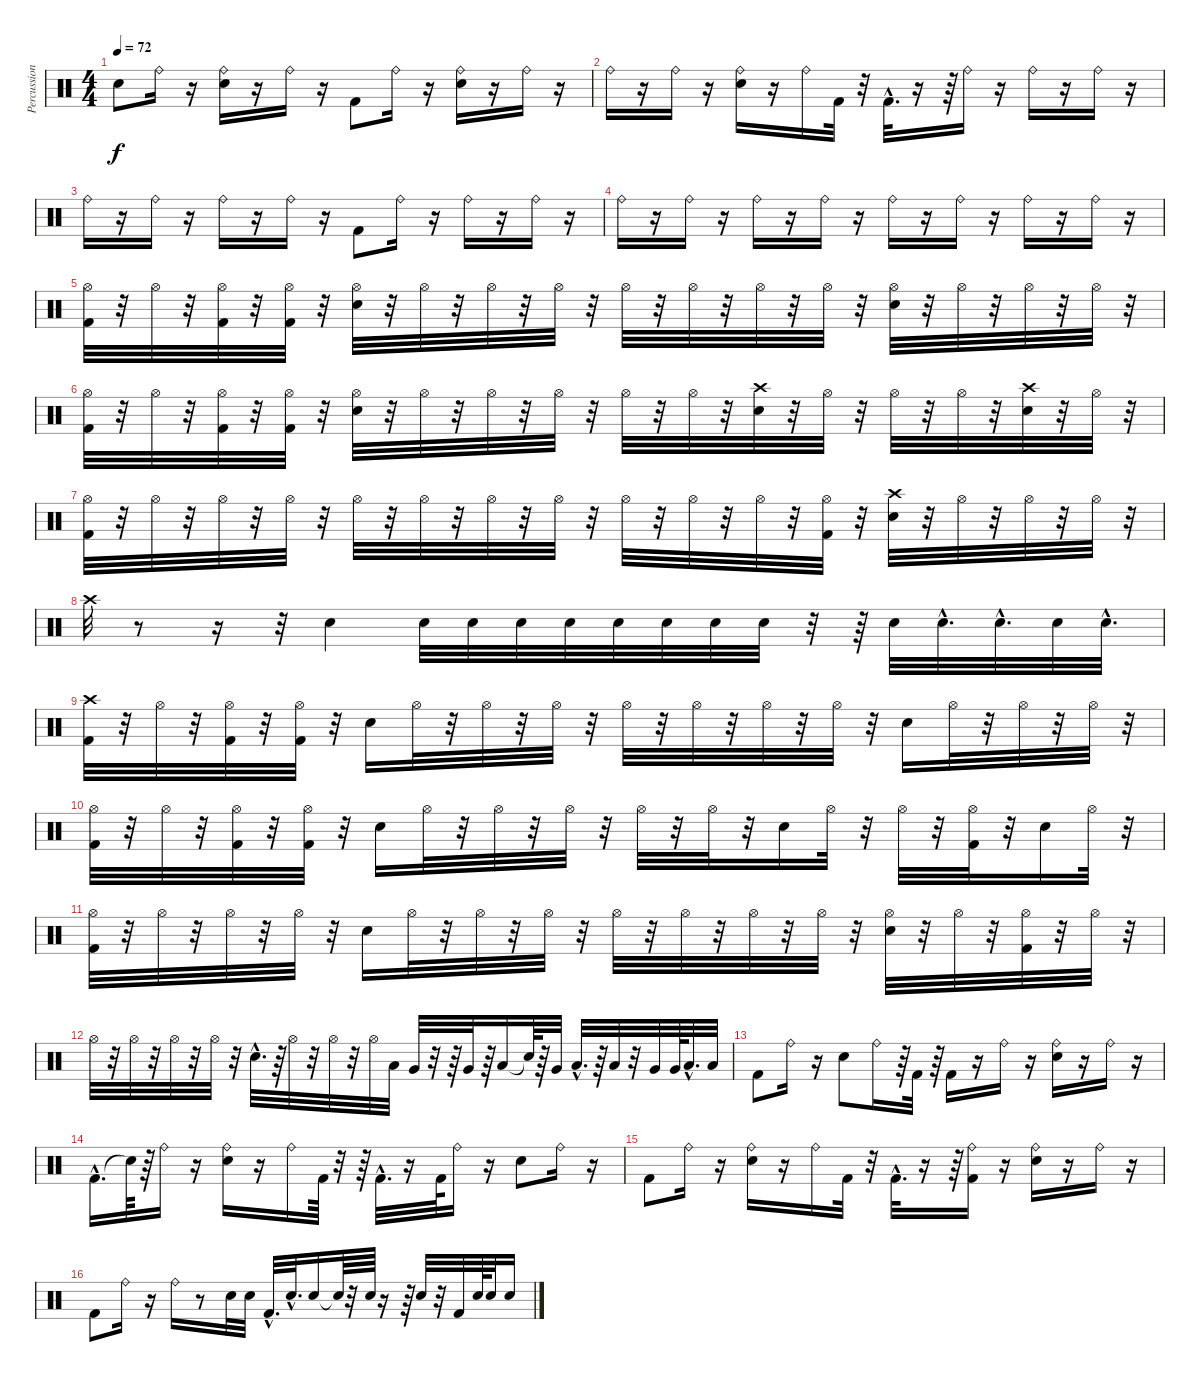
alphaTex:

\track ("Percussions" "Percussion") {instrument percussion}
\staff {score}
\articulation defaults
\ts (4 4)
\tempo 72
\clef neutral
\ks c "Snare (hit)"{t}.8{dy f} "Ride (bell)".16
r.16 ("Snare (hit) 2" "Ride (bell)").16 r.16 "Ride (bell)".16 r.16 "Kick (hit) 2".8 "Ride (bell)".16 r.16 ("Snare (hit) 2" "Ride (bell)").16 r.16 "Ride (bell)".16 r.16 |
"Ride (bell)".16 r.16 "Ride (bell)".16 r.16 ("Snare (hit) 2" "Ride (bell)").16 r.16 "Ride (bell)".16 "Kick (hit) 2".32 r.32 "Kick (hit) 2"{hac}.32{d} r.16 r.64 "Ride (bell)".16 r.16 "Ride (bell)".16 r.16 "Ride (bell)".16 r.16 |
"Ride (bell)".16 r.16 "Ride (bell)".16 r.16 "Ride (bell)".16 r.16 "Ride (bell)".16 r.16 "Kick (hit) 2".8 "Ride (bell)".16 r.16 "Ride (bell)".16 r.16 "Ride (bell)".16 r.16 |
"Ride (bell)".16 r.16 "Ride (bell)".16 r.16 "Ride (bell)".16 r.16 "Ride (bell)".16 r.16 "Ride (bell)".16 r.16 "Ride (bell)".16 r.16 "Ride (bell)".16 r.16 "Ride (bell)".16 r.16 |
("Hi-Hat (open)" "Kick (hit) 2").32 r.32 "Hi-Hat (open)".32 r.32 ("Hi-Hat (open)" "Kick (hit) 2").32 r.32 ("Hi-Hat (open)" "Kick (hit) 2").32 r.32 ("Snare (hit) 2" "Hi-Hat (open)").32 r.32 "Hi-Hat (open)".32 r.32 "Hi-Hat (open)".32 r.32 "Hi-Hat (open)".32 r.32 "Hi-Hat (open)".32 r.32 "Hi-Hat (open)".32 r.32 "Hi-Hat (open)".32 r.32 "Hi-Hat (open)".32 r.32 ("Snare (hit) 2" "Hi-Hat (open)").32 r.32 "Hi-Hat (open)".32 r.32 "Hi-Hat (open)".32 r.32 "Hi-Hat (open)".32 r.32 |
("Hi-Hat (open)" "Kick (hit) 2").32 r.32 "Hi-Hat (open)".32 r.32 ("Hi-Hat (open)" "Kick (hit) 2").32 r.32 ("Hi-Hat (open)" "Kick (hit) 2").32 r.32 ("Snare (hit) 2" "Hi-Hat (open)").32 r.32 "Hi-Hat (open)".32 r.32 "Hi-Hat (open)".32 r.32 "Hi-Hat (open)".32 r.32 "Hi-Hat (open)".32 r.32 "Hi-Hat (open)".32 r.32 ("Snare (hit) 2" "Crash high (hit)").32 r.32 "Hi-Hat (open)".32 r.32 "Hi-Hat (open)".32 r.32 "Hi-Hat (open)".32 r.32 ("Snare (hit) 2" "Crash high (hit)").32 r.32 "Hi-Hat (open)".32 r.32 |
("Hi-Hat (open)" "Kick (hit) 2").32 r.32 "Hi-Hat (open)".32 r.32 "Hi-Hat (open)".32 r.32 "Hi-Hat (open)".32 r.32 "Hi-Hat (open)".32 r.32 "Hi-Hat (open)".32 r.32 "Hi-Hat (open)".32 r.32 "Hi-Hat (open)".32 r.32 "Hi-Hat (open)".32 r.32 "Hi-Hat (open)".32 r.32 "Hi-Hat (open)".32 r.32 ("Hi-Hat (open)" "Kick (hit) 2").32 r.32 ("Snare (hit) 2" "Crash high (hit)").32 r.32 "Hi-Hat (open)".32 r.32 "Hi-Hat (open)".32 r.32 "Hi-Hat (open)".32 r.32 |
"Crash high (hit)".32 r.8 r.16 r.32 "Snare (hit) 2".4 "Snare (hit) 2".32 "Snare (hit) 2".32 "Snare (hit) 2".32 "Snare (hit) 2".32 "Snare (hit) 2".32 "Snare (hit) 2".32 "Snare (hit) 2".32 "Snare (hit) 2".32 r.32 r.64 "Snare (hit) 2".32 "Snare (hit) 2"{hac}.32{d} "Snare (hit) 2"{hac}.32{d} "Snare (hit) 2".32 "Snare (hit) 2"{hac}.32{d} |
("Crash high (hit)" "Kick (hit) 2").32 r.32 "Hi-Hat (open)".32 r.32 ("Hi-Hat (open)" "Kick (hit) 2").32 r.32 ("Hi-Hat (open)" "Kick (hit) 2").32 r.32 "Snare (hit) 2".16 "Hi-Hat (open)".32 r.32 "Hi-Hat (open)".32 r.32 "Hi-Hat (open)".32 r.32 "Hi-Hat (open)".32 r.32 "Hi-Hat (open)".32 r.32 "Hi-Hat (open)".32 r.32 "Hi-Hat (open)".32 r.32 "Snare (hit) 2".16 "Hi-Hat (open)".32 r.32 "Hi-Hat (open)".32 r.32 "Hi-Hat (open)".32 r.32 |
("Hi-Hat (open)" "Kick (hit) 2").32 r.32 "Hi-Hat (open)".32 r.32 ("Hi-Hat (open)" "Kick (hit) 2").32 r.32 ("Hi-Hat (open)" "Kick (hit) 2").32 r.32 "Snare (hit) 2".16 "Hi-Hat (open)".32 r.32 "Hi-Hat (open)".32 r.32 "Hi-Hat (open)".32 r.32 "Hi-Hat (open)".32 r.32 "Hi-Hat (open)".32 r.32 "Snare (hit) 2".16 "Hi-Hat (open)".32 r.32 "Hi-Hat (open)".32 r.32 ("Hi-Hat (open)" "Kick (hit) 2").32 r.32 "Snare (hit) 2".16 "Hi-Hat (open)".32 r.32 |
("Hi-Hat (open)" "Kick (hit) 2").32 r.32 "Hi-Hat (open)".32 r.32 "Hi-Hat (open)".32 r.32 "Hi-Hat (open)".32 r.32 "Snare (hit) 2".16 "Hi-Hat (open)".32 r.32 "Hi-Hat (open)".32 r.32 "Hi-Hat (open)".32 r.32 "Hi-Hat (open)".32 r.32 "Hi-Hat (open)".32 r.32 "Hi-Hat (open)".32 r.32 "Hi-Hat (open)".32 r.32 ("Snare (hit) 2" "Hi-Hat (open)").32 r.32 "Hi-Hat (open)".32 r.32 ("Hi-Hat (open)" "Kick (hit) 2").32 r.32 "Hi-Hat (open)".32 r.32 |
"Hi-Hat (open)".32 r.32 "Hi-Hat (open)".32 r.32 "Hi-Hat (open)".32 r.32 "Hi-Hat (open)".32 r.32 "Snare (hit) 2"{hac}.32{d} r.64 "Hi-Hat (open)".32 r.32 "Hi-Hat (open)".32 r.32 "Hi-Hat (open)".32 "Low Floor Tom (hit)".32 "Very Low Tom (hit)".32 r.32 r.64 "Very Low Tom (hit)".32 r.64 "Low Floor Tom (hit)".16 "Snare (hit)"{t}.64 r.64 "Very Low Tom (hit)".32 "Low Tom (hit)"{hac}.32{d} r.64 "Low Tom (hit)".32 r.32 "Very Low Tom (hit)".32 "Very Low Tom (hit)".64 "Low Floor Tom (hit)"{hac}.32{d} "Low Floor Tom (hit)".32 |
"Kick (hit) 2".8 "Ride (bell)".16 r.16 "Snare (hit) 2".8 "Ride (bell)".16 r.64 "Kick (hit) 2".32 r.64 "Kick (hit) 2".16 r.16 "Ride (bell)".16 r.16 ("Snare (hit) 2" "Ride (bell)").16 r.16 "Ride (bell)".16 r.16 |
"Kick (hit) 2"{hac}.16{d} "Snare (hit)"{t}.64 r.64 "Ride (bell)".16 r.16 ("Snare (hit) 2" "Ride (bell)").16 r.16 "Ride (bell)".16 "Kick (hit) 2".64 r.32 r.64 "Kick (hit) 2"{hac}.32{d} r.16 "Kick (hit) 2".64 "Ride (bell)".16 r.16 "Snare (hit) 2".8 "Ride (bell)".16 r.16 |
"Kick (hit) 2".8 "Ride (bell)".16 r.16 ("Snare (hit) 2" "Ride (bell)").16 r.16 "Ride (bell)".16 "Kick (hit) 2".32 r.32 "Kick (hit) 2"{hac}.32{d} r.16 r.64 ("Ride (bell)" "Kick (hit) 2").16 r.16 ("Snare (hit) 2" "Ride (bell)").16 r.16 "Ride (bell)".16 r.16 |
"Kick (hit) 2".8 "Ride (bell)".16 r.16 "Ride (bell)".16 r.8 "Snare (hit) 2".32 "Snare (hit) 2".32 "Kick (hit) 2"{hac}.32{d} "Snare (hit) 2"{hac}.32{d} "Snare (hit) 2".16 "Snare (hit)"{t}.64 r.32 "Snare (hit) 2".64 r.16 r.64 "Snare (hit) 2".32 r.32 "Kick (hit) 2".32 "Snare (hit) 2".64 "Snare (hit) 2".32 "Snare (hit) 2".16
